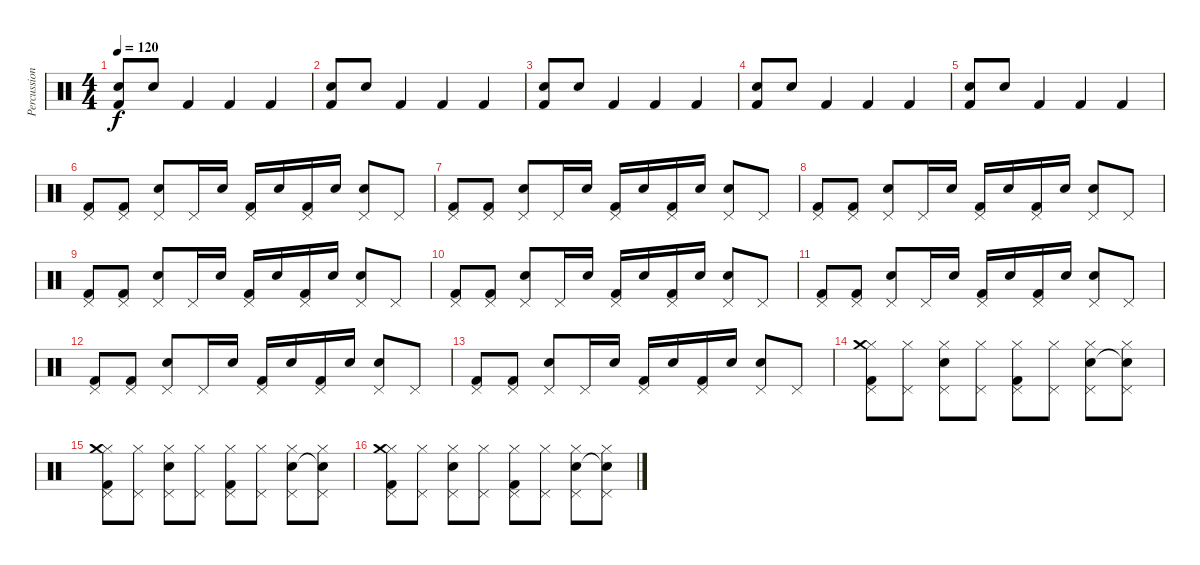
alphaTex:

\track ("Percussions" "Percussion") {instrument percussion}
\staff {score}
\articulation defaults
\ts (4 4)
\tempo 120
\clef neutral
\ks c
("Electric Snare (hit)" "Kick (hit) 2").8{dy f} "Electric Snare (hit)".8 "Kick (hit) 2".4 "Kick (hit) 2".4 "Kick (hit) 2".4 |
("Electric Snare (hit)" "Kick (hit) 2").8 "Electric Snare (hit)".8 "Kick (hit) 2".4 "Kick (hit) 2".4 "Kick (hit) 2".4 |
("Electric Snare (hit)" "Kick (hit) 2").8 "Electric Snare (hit)".8 "Kick (hit) 2".4 "Kick (hit) 2".4 "Kick (hit) 2".4 |
("Electric Snare (hit)" "Kick (hit) 2").8 "Electric Snare (hit)".8 "Kick (hit) 2".4 "Kick (hit) 2".4 "Kick (hit) 2".4 |
("Electric Snare (hit)" "Kick (hit) 2").8 "Electric Snare (hit)".8 "Kick (hit) 2".4 "Kick (hit) 2".4 "Kick (hit) 2".4 |
("Pedal Hi-Hat (hit)" "Kick (hit) 2").8 ("Pedal Hi-Hat (hit)" "Kick (hit) 2").8 ("Pedal Hi-Hat (hit)" "Electric Snare (hit)").8 "Pedal Hi-Hat (hit)".16 "Electric Snare (hit)".16 ("Pedal Hi-Hat (hit)" "Kick (hit) 2").16 "Electric Snare (hit)".16 ("Pedal Hi-Hat (hit)" "Kick (hit) 2").16 "Electric Snare (hit)".16 ("Pedal Hi-Hat (hit)" "Electric Snare (hit)").8 "Pedal Hi-Hat (hit)".8 |
("Pedal Hi-Hat (hit)" "Kick (hit) 2").8 ("Pedal Hi-Hat (hit)" "Kick (hit) 2").8 ("Pedal Hi-Hat (hit)" "Electric Snare (hit)").8 "Pedal Hi-Hat (hit)".16 "Electric Snare (hit)".16 ("Pedal Hi-Hat (hit)" "Kick (hit) 2").16 "Electric Snare (hit)".16 ("Pedal Hi-Hat (hit)" "Kick (hit) 2").16 "Electric Snare (hit)".16 ("Pedal Hi-Hat (hit)" "Electric Snare (hit)").8 "Pedal Hi-Hat (hit)".8 |
("Pedal Hi-Hat (hit)" "Kick (hit) 2").8 ("Pedal Hi-Hat (hit)" "Kick (hit) 2").8 ("Pedal Hi-Hat (hit)" "Electric Snare (hit)").8 "Pedal Hi-Hat (hit)".16 "Electric Snare (hit)".16 ("Pedal Hi-Hat (hit)" "Kick (hit) 2").16 "Electric Snare (hit)".16 ("Pedal Hi-Hat (hit)" "Kick (hit) 2").16 "Electric Snare (hit)".16 ("Pedal Hi-Hat (hit)" "Electric Snare (hit)").8 "Pedal Hi-Hat (hit)".8 |
("Pedal Hi-Hat (hit)" "Kick (hit) 2").8 ("Pedal Hi-Hat (hit)" "Kick (hit) 2").8 ("Pedal Hi-Hat (hit)" "Electric Snare (hit)").8 "Pedal Hi-Hat (hit)".16 "Electric Snare (hit)".16 ("Pedal Hi-Hat (hit)" "Kick (hit) 2").16 "Electric Snare (hit)".16 ("Pedal Hi-Hat (hit)" "Kick (hit) 2").16 "Electric Snare (hit)".16 ("Pedal Hi-Hat (hit)" "Electric Snare (hit)").8 "Pedal Hi-Hat (hit)".8 |
("Pedal Hi-Hat (hit)" "Kick (hit) 2").8 ("Pedal Hi-Hat (hit)" "Kick (hit) 2").8 ("Pedal Hi-Hat (hit)" "Electric Snare (hit)").8 "Pedal Hi-Hat (hit)".16 "Electric Snare (hit)".16 ("Pedal Hi-Hat (hit)" "Kick (hit) 2").16 "Electric Snare (hit)".16 ("Pedal Hi-Hat (hit)" "Kick (hit) 2").16 "Electric Snare (hit)".16 ("Pedal Hi-Hat (hit)" "Electric Snare (hit)").8 "Pedal Hi-Hat (hit)".8 |
("Pedal Hi-Hat (hit)" "Kick (hit) 2").8 ("Pedal Hi-Hat (hit)" "Kick (hit) 2").8 ("Pedal Hi-Hat (hit)" "Electric Snare (hit)").8 "Pedal Hi-Hat (hit)".16 "Electric Snare (hit)".16 ("Pedal Hi-Hat (hit)" "Kick (hit) 2").16 "Electric Snare (hit)".16 ("Pedal Hi-Hat (hit)" "Kick (hit) 2").16 "Electric Snare (hit)".16 ("Pedal Hi-Hat (hit)" "Electric Snare (hit)").8 "Pedal Hi-Hat (hit)".8 |
("Pedal Hi-Hat (hit)" "Kick (hit) 2").8 ("Pedal Hi-Hat (hit)" "Kick (hit) 2").8 ("Pedal Hi-Hat (hit)" "Electric Snare (hit)").8 "Pedal Hi-Hat (hit)".16 "Electric Snare (hit)".16 ("Pedal Hi-Hat (hit)" "Kick (hit) 2").16 "Electric Snare (hit)".16 ("Pedal Hi-Hat (hit)" "Kick (hit) 2").16 "Electric Snare (hit)".16 ("Pedal Hi-Hat (hit)" "Electric Snare (hit)").8 "Pedal Hi-Hat (hit)".8 |
("Pedal Hi-Hat (hit)" "Kick (hit) 2").8 ("Pedal Hi-Hat (hit)" "Kick (hit) 2").8 ("Pedal Hi-Hat (hit)" "Electric Snare (hit)").8 "Pedal Hi-Hat (hit)".16 "Electric Snare (hit)".16 ("Pedal Hi-Hat (hit)" "Kick (hit) 2").16 "Electric Snare (hit)".16 ("Pedal Hi-Hat (hit)" "Kick (hit) 2").16 "Electric Snare (hit)".16 ("Pedal Hi-Hat (hit)" "Electric Snare (hit)").8 "Pedal Hi-Hat (hit)".8 |
("Hi-Hat (closed)" "Pedal Hi-Hat (hit)" "Crash medium (hit)" "Kick (hit) 2").8 ("Hi-Hat (closed)" "Pedal Hi-Hat (hit)").8 ("Hi-Hat (closed)" "Pedal Hi-Hat (hit)" "Electric Snare (hit)").8 ("Hi-Hat (closed)" "Pedal Hi-Hat (hit)").8 ("Hi-Hat (closed)" "Pedal Hi-Hat (hit)" "Kick (hit) 2").8 ("Hi-Hat (closed)" "Pedal Hi-Hat (hit)").8 ("Hi-Hat (closed)" "Pedal Hi-Hat (hit)" "Electric Snare (hit)").8 ("Hi-Hat (closed)" "Pedal Hi-Hat (hit)" "Snare (hit)"{t}).8 |
("Hi-Hat (closed)" "Pedal Hi-Hat (hit)" "Crash medium (hit)" "Kick (hit) 2").8 ("Hi-Hat (closed)" "Pedal Hi-Hat (hit)").8 ("Hi-Hat (closed)" "Pedal Hi-Hat (hit)" "Electric Snare (hit)").8 ("Hi-Hat (closed)" "Pedal Hi-Hat (hit)").8 ("Hi-Hat (closed)" "Pedal Hi-Hat (hit)" "Kick (hit) 2").8 ("Hi-Hat (closed)" "Pedal Hi-Hat (hit)").8 ("Hi-Hat (closed)" "Pedal Hi-Hat (hit)" "Electric Snare (hit)").8 ("Hi-Hat (closed)" "Pedal Hi-Hat (hit)" "Snare (hit)"{t}).8 |
("Hi-Hat (closed)" "Pedal Hi-Hat (hit)" "Crash medium (hit)" "Kick (hit) 2").8 ("Hi-Hat (closed)" "Pedal Hi-Hat (hit)").8 ("Hi-Hat (closed)" "Pedal Hi-Hat (hit)" "Electric Snare (hit)").8 ("Hi-Hat (closed)" "Pedal Hi-Hat (hit)").8 ("Hi-Hat (closed)" "Pedal Hi-Hat (hit)" "Kick (hit) 2").8 ("Hi-Hat (closed)" "Pedal Hi-Hat (hit)").8 ("Hi-Hat (closed)" "Pedal Hi-Hat (hit)" "Electric Snare (hit)").8 ("Hi-Hat (closed)" "Pedal Hi-Hat (hit)" "Snare (hit)"{t}).8
